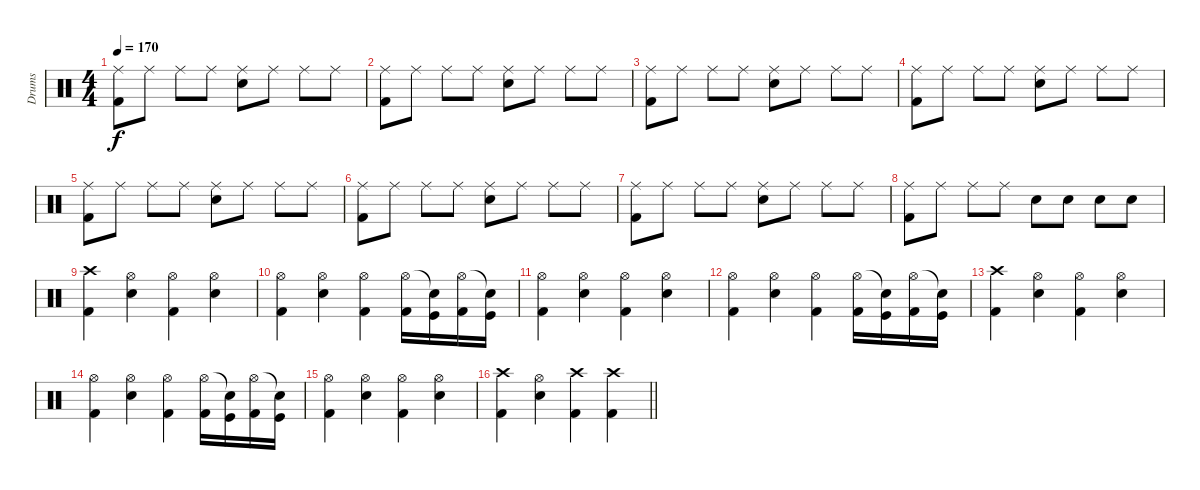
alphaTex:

\track ("Drums" "Drums") {instrument percussion}
\staff {score}
\articulation defaults
\ts (4 4)
\tempo 170
\clef neutral
\ks c
("Ride (middle)" "Kick (hit) 2").8{dy f} "Ride (middle)".8 "Ride (middle)".8 "Ride (middle)".8 ("Ride (middle)" "Electric Snare (hit)").8 "Ride (middle)".8 "Ride (middle)".8 "Ride (middle)".8 |
("Ride (middle)" "Kick (hit) 2").8 "Ride (middle)".8 "Ride (middle)".8 "Ride (middle)".8 ("Ride (middle)" "Electric Snare (hit)").8 "Ride (middle)".8 "Ride (middle)".8 "Ride (middle)".8 |
("Ride (middle)" "Kick (hit) 2").8 "Ride (middle)".8 "Ride (middle)".8 "Ride (middle)".8 ("Ride (middle)" "Electric Snare (hit)").8 "Ride (middle)".8 "Ride (middle)".8 "Ride (middle)".8 |
("Ride (middle)" "Kick (hit) 2").8 "Ride (middle)".8 "Ride (middle)".8 "Ride (middle)".8 ("Ride (middle)" "Electric Snare (hit)").8 "Ride (middle)".8 "Ride (middle)".8 "Ride (middle)".8 |
("Ride (middle)" "Kick (hit) 2").8 "Ride (middle)".8 "Ride (middle)".8 "Ride (middle)".8 ("Ride (middle)" "Electric Snare (hit)").8 "Ride (middle)".8 "Ride (middle)".8 "Ride (middle)".8 |
("Ride (middle)" "Kick (hit) 2").8 "Ride (middle)".8 "Ride (middle)".8 "Ride (middle)".8 ("Ride (middle)" "Electric Snare (hit)").8 "Ride (middle)".8 "Ride (middle)".8 "Ride (middle)".8 |
("Ride (middle)" "Kick (hit) 2").8 "Ride (middle)".8 "Ride (middle)".8 "Ride (middle)".8 ("Ride (middle)" "Electric Snare (hit)").8 "Ride (middle)".8 "Ride (middle)".8 "Ride (middle)".8 |
("Ride (middle)" "Kick (hit) 2").8 "Ride (middle)".8 "Ride (middle)".8 "Ride (middle)".8 "Electric Snare (hit)".8{bd 60} "Electric Snare (hit)".8{bu 60} "Electric Snare (hit)".8{bd 60} "Electric Snare (hit)".8{bu 60} |
("Crash high (hit)" "Kick (hit) 2").4 ("Hi-Hat (open)" "Electric Snare (hit)").4 ("Hi-Hat (open)" "Kick (hit) 2").4 ("Hi-Hat (open)" "Electric Snare (hit)").4 |
("Hi-Hat (open)" "Kick (hit) 2").4 ("Hi-Hat (open)" "Electric Snare (hit)").4 ("Hi-Hat (open)" "Kick (hit) 2").4 ("Hi-Hat (open)" "Kick (hit) 2").16 ("Snare (hit)"{t} "Kick (hit)").16 ("Hi-Hat (open)" "Kick (hit) 2").16 ("Snare (hit)"{t} "Kick (hit)").16 |
("Hi-Hat (open)" "Kick (hit) 2").4 ("Hi-Hat (open)" "Electric Snare (hit)").4 ("Hi-Hat (open)" "Kick (hit) 2").4 ("Hi-Hat (open)" "Electric Snare (hit)").4 |
("Hi-Hat (open)" "Kick (hit) 2").4 ("Hi-Hat (open)" "Electric Snare (hit)").4 ("Hi-Hat (open)" "Kick (hit) 2").4 ("Hi-Hat (open)" "Kick (hit) 2").16 ("Snare (hit)"{t} "Kick (hit)").16 ("Hi-Hat (open)" "Kick (hit) 2").16 ("Snare (hit)"{t} "Kick (hit)").16 |
("Crash high (hit)" "Kick (hit) 2").4 ("Hi-Hat (open)" "Electric Snare (hit)").4 ("Hi-Hat (open)" "Kick (hit) 2").4 ("Hi-Hat (open)" "Electric Snare (hit)").4 |
("Hi-Hat (open)" "Kick (hit) 2").4 ("Hi-Hat (open)" "Electric Snare (hit)").4 ("Hi-Hat (open)" "Kick (hit) 2").4 ("Hi-Hat (open)" "Kick (hit) 2").16 ("Snare (hit)"{t} "Kick (hit)").16 ("Hi-Hat (open)" "Kick (hit) 2").16 ("Snare (hit)"{t} "Kick (hit)").16 |
("Hi-Hat (open)" "Kick (hit) 2").4 ("Hi-Hat (open)" "Electric Snare (hit)").4 ("Hi-Hat (open)" "Kick (hit) 2").4 ("Hi-Hat (open)" "Electric Snare (hit)").4 |
\barLineRight lightlight
("Crash high (hit)" "Kick (hit) 2").4 ("Hi-Hat (open)" "Electric Snare (hit)").4 ("Crash high (hit)" "Kick (hit) 2").4 ("Crash high (hit)" "Kick (hit) 2").4
